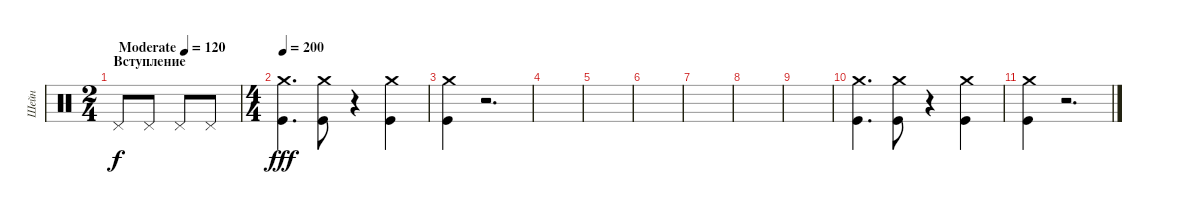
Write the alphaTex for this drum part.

\track ("Шейн" "Шейн") {instrument percussion}
\staff {score}
\articulation defaults
\ts (2 4)
\section ("" "Вступление")
\tempo (120 "Moderate")
\clef neutral
\ks c "Pedal Hi-Hat (hit)".8{dy f} "Pedal Hi-Hat (hit)".8 "Pedal Hi-Hat (hit)".8 "Pedal Hi-Hat (hit)".8
|
\ts (4 4)
\tempo 200
("Kick (hit)" "Crash medium (hit)").4{d dy fff} ("Kick (hit)" "Crash medium (hit)").8 r.4 ("Crash medium (hit)" "Kick (hit)").4 |
("Kick (hit)" "Crash medium (hit)").4 r.2{d} |
|
|
|
|
|
|
("Kick (hit)" "Crash medium (hit)").4{d} ("Kick (hit)" "Crash medium (hit)").8 r.4 ("Crash medium (hit)" "Kick (hit)").4 |
("Kick (hit)" "Crash medium (hit)").4 r.2{d}
